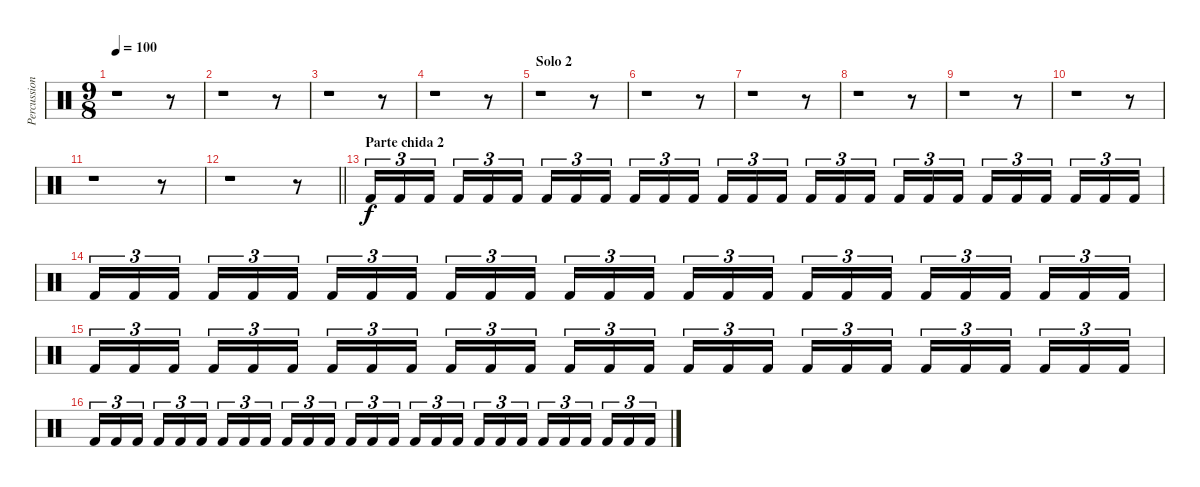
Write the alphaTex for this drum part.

\track ("Percussion" "Percussion") {instrument percussion}
\staff {score}
\articulation defaults
\ts (9 8)
\tempo 100
\clef neutral
\ks c
r.1{dy f} r.8 |
r.1 r.8 |
r.1 r.8 |
r.1 r.8 |
\section ("" "Solo 2")
r.1 r.8 |
r.1 r.8 |
r.1 r.8 |
r.1 r.8 |
r.1 r.8 |
r.1 r.8 |
r.1 r.8 |
\barLineRight lightlight
r.1 r.8 |
\section ("" "Parte chida 2")
"Kick (hit) 2".16{tu (3 2)} "Kick (hit) 2".16{tu (3 2)} "Kick (hit) 2".16{tu (3 2)} "Kick (hit) 2".16{tu (3 2)} "Kick (hit) 2".16{tu (3 2)} "Kick (hit) 2".16{tu (3 2)} "Kick (hit) 2".16{tu (3 2)} "Kick (hit) 2".16{tu (3 2)} "Kick (hit) 2".16{tu (3 2)} "Kick (hit) 2".16{tu (3 2)} "Kick (hit) 2".16{tu (3 2)} "Kick (hit) 2".16{tu (3 2)} "Kick (hit) 2".16{tu (3 2)} "Kick (hit) 2".16{tu (3 2)} "Kick (hit) 2".16{tu (3 2)} "Kick (hit) 2".16{tu (3 2)} "Kick (hit) 2".16{tu (3 2)} "Kick (hit) 2".16{tu (3 2)} "Kick (hit) 2".16{tu (3 2)} "Kick (hit) 2".16{tu (3 2)} "Kick (hit) 2".16{tu (3 2)} "Kick (hit) 2".16{tu (3 2)} "Kick (hit) 2".16{tu (3 2)} "Kick (hit) 2".16{tu (3 2)} "Kick (hit) 2".16{tu (3 2)} "Kick (hit) 2".16{tu (3 2)} "Kick (hit) 2".16{tu (3 2)} |
"Kick (hit) 2".16{tu (3 2)} "Kick (hit) 2".16{tu (3 2)} "Kick (hit) 2".16{tu (3 2)} "Kick (hit) 2".16{tu (3 2)} "Kick (hit) 2".16{tu (3 2)} "Kick (hit) 2".16{tu (3 2)} "Kick (hit) 2".16{tu (3 2)} "Kick (hit) 2".16{tu (3 2)} "Kick (hit) 2".16{tu (3 2)} "Kick (hit) 2".16{tu (3 2)} "Kick (hit) 2".16{tu (3 2)} "Kick (hit) 2".16{tu (3 2)} "Kick (hit) 2".16{tu (3 2)} "Kick (hit) 2".16{tu (3 2)} "Kick (hit) 2".16{tu (3 2)} "Kick (hit) 2".16{tu (3 2)} "Kick (hit) 2".16{tu (3 2)} "Kick (hit) 2".16{tu (3 2)} "Kick (hit) 2".16{tu (3 2)} "Kick (hit) 2".16{tu (3 2)} "Kick (hit) 2".16{tu (3 2)} "Kick (hit) 2".16{tu (3 2)} "Kick (hit) 2".16{tu (3 2)} "Kick (hit) 2".16{tu (3 2)} "Kick (hit) 2".16{tu (3 2)} "Kick (hit) 2".16{tu (3 2)} "Kick (hit) 2".16{tu (3 2)} |
"Kick (hit) 2".16{tu (3 2)} "Kick (hit) 2".16{tu (3 2)} "Kick (hit) 2".16{tu (3 2)} "Kick (hit) 2".16{tu (3 2)} "Kick (hit) 2".16{tu (3 2)} "Kick (hit) 2".16{tu (3 2)} "Kick (hit) 2".16{tu (3 2)} "Kick (hit) 2".16{tu (3 2)} "Kick (hit) 2".16{tu (3 2)} "Kick (hit) 2".16{tu (3 2)} "Kick (hit) 2".16{tu (3 2)} "Kick (hit) 2".16{tu (3 2)} "Kick (hit) 2".16{tu (3 2)} "Kick (hit) 2".16{tu (3 2)} "Kick (hit) 2".16{tu (3 2)} "Kick (hit) 2".16{tu (3 2)} "Kick (hit) 2".16{tu (3 2)} "Kick (hit) 2".16{tu (3 2)} "Kick (hit) 2".16{tu (3 2)} "Kick (hit) 2".16{tu (3 2)} "Kick (hit) 2".16{tu (3 2)} "Kick (hit) 2".16{tu (3 2)} "Kick (hit) 2".16{tu (3 2)} "Kick (hit) 2".16{tu (3 2)} "Kick (hit) 2".16{tu (3 2)} "Kick (hit) 2".16{tu (3 2)} "Kick (hit) 2".16{tu (3 2)} |
"Kick (hit) 2".16{tu (3 2)} "Kick (hit) 2".16{tu (3 2)} "Kick (hit) 2".16{tu (3 2)} "Kick (hit) 2".16{tu (3 2)} "Kick (hit) 2".16{tu (3 2)} "Kick (hit) 2".16{tu (3 2)} "Kick (hit) 2".16{tu (3 2)} "Kick (hit) 2".16{tu (3 2)} "Kick (hit) 2".16{tu (3 2)} "Kick (hit) 2".16{tu (3 2)} "Kick (hit) 2".16{tu (3 2)} "Kick (hit) 2".16{tu (3 2)} "Kick (hit) 2".16{tu (3 2)} "Kick (hit) 2".16{tu (3 2)} "Kick (hit) 2".16{tu (3 2)} "Kick (hit) 2".16{tu (3 2)} "Kick (hit) 2".16{tu (3 2)} "Kick (hit) 2".16{tu (3 2)} "Kick (hit) 2".16{tu (3 2)} "Kick (hit) 2".16{tu (3 2)} "Kick (hit) 2".16{tu (3 2)} "Kick (hit) 2".16{tu (3 2)} "Kick (hit) 2".16{tu (3 2)} "Kick (hit) 2".16{tu (3 2)} "Kick (hit) 2".16{tu (3 2)} "Kick (hit) 2".16{tu (3 2)} "Kick (hit) 2".16{tu (3 2)}
